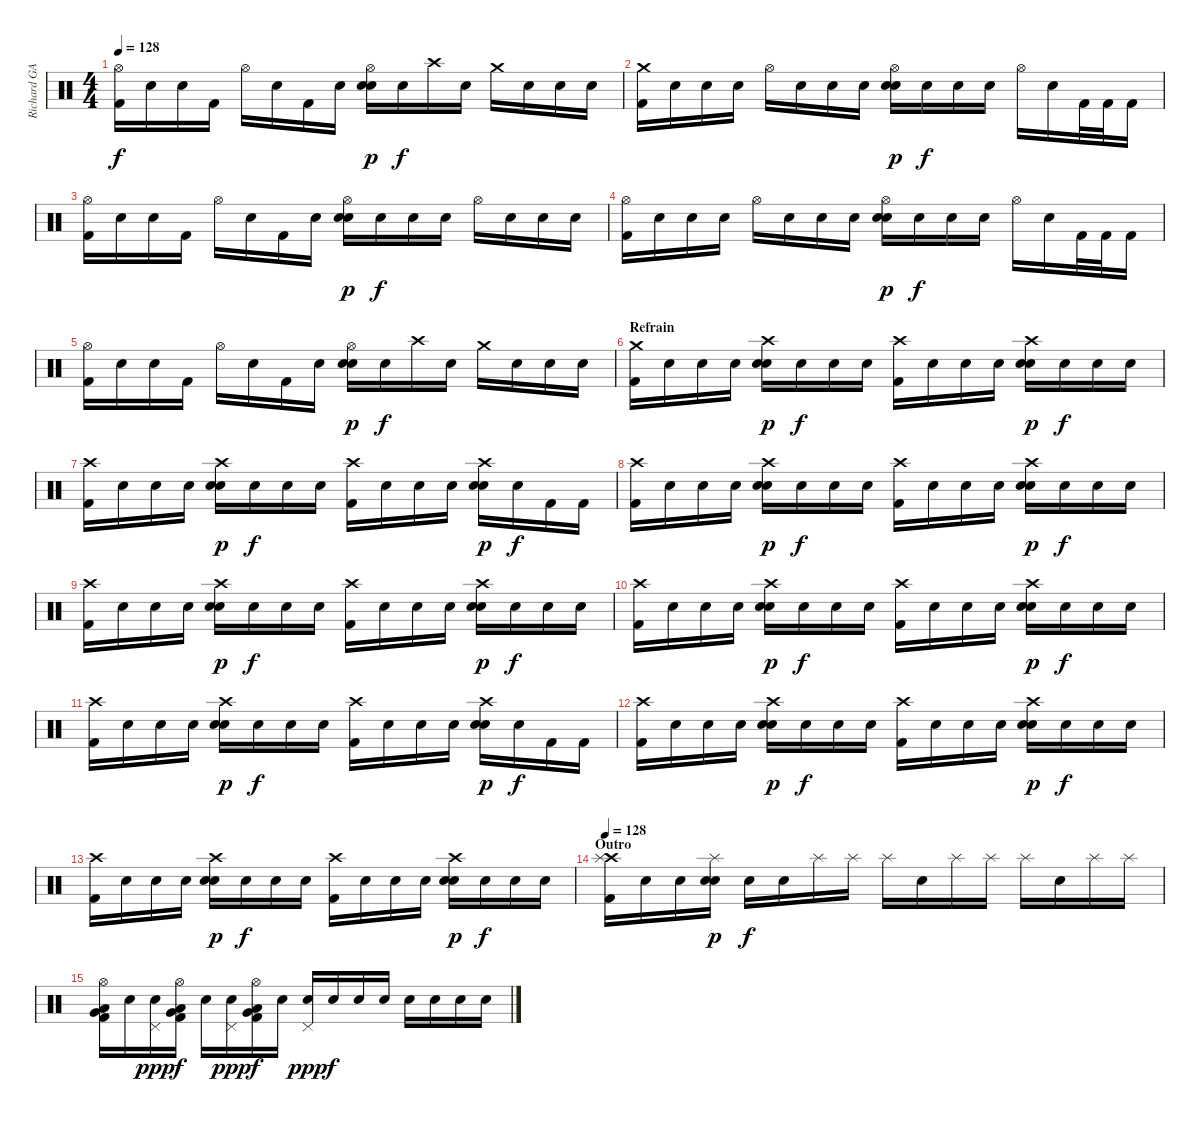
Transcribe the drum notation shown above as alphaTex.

\track ("Richard GAMBA - Batterie" "Richard GA") {instrument percussion}
\staff {score}
\articulation defaults
\ts (4 4)
\tempo 128
\clef neutral
\ks c
("Hi-Hat (open)" "Kick (hit) 2").16{dy f} "Snare (hit)".16 "Snare (hit)".16 "Kick (hit) 2".16 "Hi-Hat (open)".16 "Snare (hit)".16 "Kick (hit) 2".16 "Snare (hit)".16 ("Hi-Hat (open)" "Electric Snare (hit)" "Snare (hit) 2").16{dy p} "Snare (hit)".16{dy f} "Crash high (hit)".16 "Snare (hit)".16 "Crash medium (hit)".16 "Snare (hit)".16 "Snare (hit)".16 "Snare (hit)".16 |
("Crash medium (hit)" "Kick (hit) 2").16 "Snare (hit)".16 "Snare (hit)".16 "Snare (hit)".16 "Hi-Hat (open)".16 "Snare (hit)".16 "Snare (hit)".16 "Snare (hit)".16 ("Hi-Hat (open)" "Electric Snare (hit)" "Snare (hit) 2").16{dy p} "Snare (hit)".16{dy f} "Snare (hit)".16 "Snare (hit)".16 "Hi-Hat (open)".16 "Snare (hit)".16 "Kick (hit) 2".32 "Kick (hit) 2".32 "Kick (hit) 2".16 |
("Hi-Hat (open)" "Kick (hit) 2").16 "Snare (hit)".16 "Snare (hit)".16 "Kick (hit) 2".16 "Hi-Hat (open)".16 "Snare (hit)".16 "Kick (hit) 2".16 "Snare (hit)".16 ("Hi-Hat (open)" "Electric Snare (hit)" "Snare (hit) 2").16{dy p} "Snare (hit)".16{dy f} "Snare (hit)".16 "Snare (hit)".16 "Hi-Hat (open)".16 "Snare (hit)".16 "Snare (hit)".16 "Snare (hit)".16 |
("Hi-Hat (open)" "Kick (hit) 2").16 "Snare (hit)".16 "Snare (hit)".16 "Snare (hit)".16 "Hi-Hat (open)".16 "Snare (hit)".16 "Snare (hit)".16 "Snare (hit)".16 ("Hi-Hat (open)" "Electric Snare (hit)" "Snare (hit) 2").16{dy p} "Snare (hit)".16{dy f} "Snare (hit)".16 "Snare (hit)".16 "Hi-Hat (open)".16 "Snare (hit)".16 "Kick (hit) 2".32 "Kick (hit) 2".32 "Kick (hit) 2".16 |
("Hi-Hat (open)" "Kick (hit) 2").16 "Snare (hit)".16 "Snare (hit)".16 "Kick (hit) 2".16 "Hi-Hat (open)".16 "Snare (hit)".16 "Kick (hit) 2".16 "Snare (hit)".16 ("Hi-Hat (open)" "Electric Snare (hit)" "Snare (hit) 2").16{dy p} "Snare (hit)".16{dy f} "Crash high (hit)".16 "Snare (hit)".16 "Crash medium (hit)".16 "Snare (hit)".16 "Snare (hit)".16 "Snare (hit)".16 |
\section ("" "Refrain")
("Crash medium (hit)" "Kick (hit) 2").16 "Snare (hit)".16 "Snare (hit)".16 "Snare (hit)".16 ("Crash high (hit)" "Electric Snare (hit)" "Snare (hit) 2").16{dy p} "Snare (hit)".16{dy f} "Snare (hit)".16 "Snare (hit)".16 ("Crash high (hit)" "Kick (hit) 2").16 "Snare (hit)".16 "Snare (hit)".16 "Snare (hit)".16 ("Crash high (hit)" "Electric Snare (hit)" "Snare (hit) 2").16{dy p} "Snare (hit)".16{dy f} "Snare (hit)".16 "Snare (hit)".16 |
("Crash high (hit)" "Kick (hit) 2").16 "Snare (hit)".16 "Snare (hit)".16 "Snare (hit)".16 ("Crash high (hit)" "Electric Snare (hit)" "Snare (hit) 2").16{dy p} "Snare (hit)".16{dy f} "Snare (hit)".16 "Snare (hit)".16 ("Crash high (hit)" "Kick (hit) 2").16 "Snare (hit)".16 "Snare (hit)".16 "Snare (hit)".16 ("Crash high (hit)" "Electric Snare (hit)" "Snare (hit) 2").16{dy p} "Snare (hit)".16{dy f} "Kick (hit) 2".16 "Kick (hit) 2".16 |
("Crash high (hit)" "Kick (hit) 2").16 "Snare (hit)".16 "Snare (hit)".16 "Snare (hit)".16 ("Crash high (hit)" "Electric Snare (hit)" "Snare (hit) 2").16{dy p} "Snare (hit)".16{dy f} "Snare (hit)".16 "Snare (hit)".16 ("Crash high (hit)" "Kick (hit) 2").16 "Snare (hit)".16 "Snare (hit)".16 "Snare (hit)".16 ("Crash high (hit)" "Electric Snare (hit)" "Snare (hit) 2").16{dy p} "Snare (hit)".16{dy f} "Snare (hit)".16 "Snare (hit)".16 |
("Crash high (hit)" "Kick (hit) 2").16 "Snare (hit)".16 "Snare (hit)".16 "Snare (hit)".16 ("Crash high (hit)" "Electric Snare (hit)" "Snare (hit) 2").16{dy p} "Snare (hit)".16{dy f} "Snare (hit)".16 "Snare (hit)".16 ("Crash high (hit)" "Kick (hit) 2").16 "Snare (hit)".16 "Snare (hit)".16 "Snare (hit)".16 ("Crash high (hit)" "Electric Snare (hit)" "Snare (hit) 2").16{dy p} "Snare (hit)".16{dy f} "Snare (hit)".16 "Snare (hit)".16 |
("Crash high (hit)" "Kick (hit) 2").16 "Snare (hit)".16 "Snare (hit)".16 "Snare (hit)".16 ("Crash high (hit)" "Electric Snare (hit)" "Snare (hit) 2").16{dy p} "Snare (hit)".16{dy f} "Snare (hit)".16 "Snare (hit)".16 ("Crash high (hit)" "Kick (hit) 2").16 "Snare (hit)".16 "Snare (hit)".16 "Snare (hit)".16 ("Crash high (hit)" "Electric Snare (hit)" "Snare (hit) 2").16{dy p} "Snare (hit)".16{dy f} "Snare (hit)".16 "Snare (hit)".16 |
("Crash high (hit)" "Kick (hit) 2").16 "Snare (hit)".16 "Snare (hit)".16 "Snare (hit)".16 ("Crash high (hit)" "Electric Snare (hit)" "Snare (hit) 2").16{dy p} "Snare (hit)".16{dy f} "Snare (hit)".16 "Snare (hit)".16 ("Crash high (hit)" "Kick (hit) 2").16 "Snare (hit)".16 "Snare (hit)".16 "Snare (hit)".16 ("Crash high (hit)" "Electric Snare (hit)" "Snare (hit) 2").16{dy p} "Snare (hit)".16{dy f} "Kick (hit) 2".16 "Kick (hit) 2".16 |
("Crash high (hit)" "Kick (hit) 2").16 "Snare (hit)".16 "Snare (hit)".16 "Snare (hit)".16 ("Crash high (hit)" "Electric Snare (hit)" "Snare (hit) 2").16{dy p} "Snare (hit)".16{dy f} "Snare (hit)".16 "Snare (hit)".16 ("Crash high (hit)" "Kick (hit) 2").16 "Snare (hit)".16 "Snare (hit)".16 "Snare (hit)".16 ("Crash high (hit)" "Electric Snare (hit)" "Snare (hit) 2").16{dy p} "Snare (hit)".16{dy f} "Snare (hit)".16 "Snare (hit)".16 |
("Crash high (hit)" "Kick (hit) 2").16 "Snare (hit)".16 "Snare (hit)".16 "Snare (hit)".16 ("Crash high (hit)" "Electric Snare (hit)" "Snare (hit) 2").16{dy p} "Snare (hit)".16{dy f} "Snare (hit)".16 "Snare (hit)".16 ("Crash high (hit)" "Kick (hit) 2").16 "Snare (hit)".16 "Snare (hit)".16 "Snare (hit)".16 ("Crash high (hit)" "Electric Snare (hit)" "Snare (hit) 2").16{dy p} "Snare (hit)".16{dy f} "Snare (hit)".16 "Snare (hit)".16 |
\section ("" "Outro")
\tempo 128
("Crash high (hit)" "Splash (hit)" "Kick (hit) 2").16{volume 16 balance 8} "Snare (hit)".16 "Snare (hit)".16 ("Splash (hit)" "Electric Snare (hit)" "Snare (hit) 2").16{dy p} "Snare (hit)".16{dy f} "Snare (hit)".16 "Splash (hit)".16 "Splash (hit)".16 "Splash (hit)".16 "Snare (hit)".16 "Splash (hit)".16 "Splash (hit)".16 "Splash (hit)".16 "Snare (hit)".16 "Splash (hit)".16 "Splash (hit)".16 |
("Hi-Hat (open)" "Low Tom (hit)" "Very Low Tom (hit)" "Kick (hit) 2").16 "Snare (hit)".16 ("Pedal Hi-Hat (hit)" "Snare (hit)").16{dy ppp} ("Hi-Hat (open)" "Low Tom (hit)" "Very Low Tom (hit)" "Kick (hit) 2").16{dy f} "Snare (hit)".16 ("Pedal Hi-Hat (hit)" "Snare (hit)").16{dy ppp} ("Hi-Hat (open)" "Low Tom (hit)" "Very Low Tom (hit)" "Kick (hit) 2").16{dy f} "Snare (hit)".16 ("Pedal Hi-Hat (hit)" "Snare (hit)").16{dy ppp} "Snare (hit)".16{dy f} "Snare (hit)".16 "Snare (hit)".16 "Snare (hit)".16 "Snare (hit)".16 "Snare (hit)".16 "Snare (hit)".16
